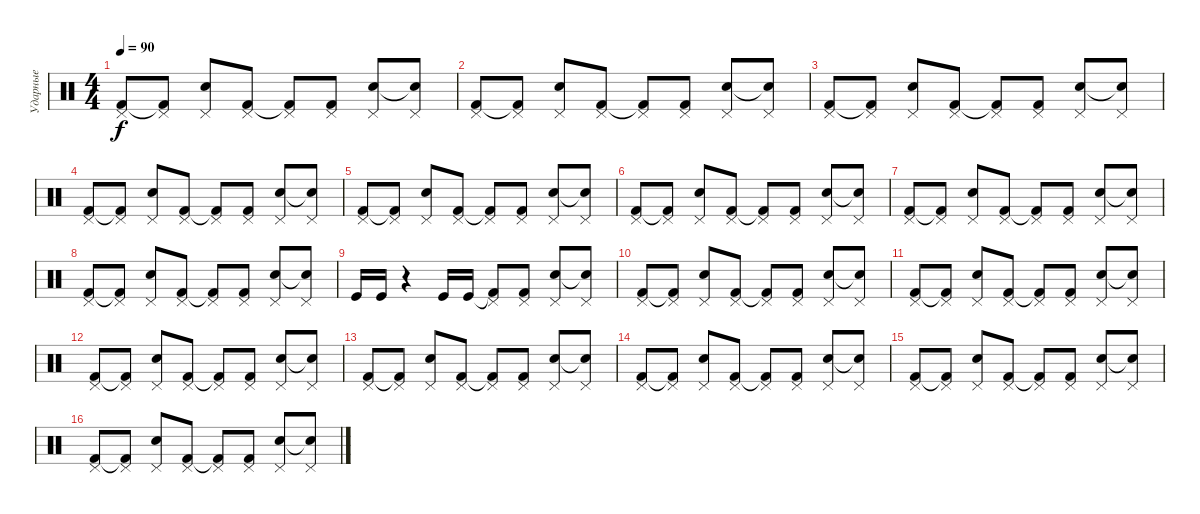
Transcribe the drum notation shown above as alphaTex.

\track ("Ударные" "Ударные") {instrument percussion}
\staff {score}
\articulation defaults
\ts (4 4)
\tempo 90
\clef neutral
\ks c
("Kick (hit) 2" "Pedal Hi-Hat (hit)").8{dy f} ("Kick (hit) 2"{t} "Pedal Hi-Hat (hit)").8 ("Snare (hit) 2" "Pedal Hi-Hat (hit)").8 ("Kick (hit) 2" "Pedal Hi-Hat (hit)").8 ("Kick (hit) 2"{t} "Pedal Hi-Hat (hit)").8 ("Kick (hit) 2" "Pedal Hi-Hat (hit)").8 ("Snare (hit) 2" "Pedal Hi-Hat (hit)").8 ("Snare (hit) 2"{t} "Pedal Hi-Hat (hit)").8 |
("Kick (hit) 2" "Pedal Hi-Hat (hit)").8 ("Kick (hit) 2"{t} "Pedal Hi-Hat (hit)").8 ("Snare (hit) 2" "Pedal Hi-Hat (hit)").8 ("Kick (hit) 2" "Pedal Hi-Hat (hit)").8 ("Kick (hit) 2"{t} "Pedal Hi-Hat (hit)").8 ("Kick (hit) 2" "Pedal Hi-Hat (hit)").8 ("Snare (hit) 2" "Pedal Hi-Hat (hit)").8 ("Snare (hit) 2"{t} "Pedal Hi-Hat (hit)").8 |
("Kick (hit) 2" "Pedal Hi-Hat (hit)").8 ("Kick (hit) 2"{t} "Pedal Hi-Hat (hit)").8 ("Snare (hit) 2" "Pedal Hi-Hat (hit)").8 ("Kick (hit) 2" "Pedal Hi-Hat (hit)").8 ("Kick (hit) 2"{t} "Pedal Hi-Hat (hit)").8 ("Kick (hit) 2" "Pedal Hi-Hat (hit)").8 ("Snare (hit) 2" "Pedal Hi-Hat (hit)").8 ("Snare (hit) 2"{t} "Pedal Hi-Hat (hit)").8 |
("Kick (hit) 2" "Pedal Hi-Hat (hit)").8 ("Kick (hit) 2"{t} "Pedal Hi-Hat (hit)").8 ("Snare (hit) 2" "Pedal Hi-Hat (hit)").8 ("Kick (hit) 2" "Pedal Hi-Hat (hit)").8 ("Kick (hit) 2"{t} "Pedal Hi-Hat (hit)").8 ("Kick (hit) 2" "Pedal Hi-Hat (hit)").8 ("Snare (hit) 2" "Pedal Hi-Hat (hit)").8 ("Snare (hit) 2"{t} "Pedal Hi-Hat (hit)").8 |
("Kick (hit) 2" "Pedal Hi-Hat (hit)").8 ("Kick (hit) 2"{t} "Pedal Hi-Hat (hit)").8 ("Snare (hit) 2" "Pedal Hi-Hat (hit)").8 ("Kick (hit) 2" "Pedal Hi-Hat (hit)").8 ("Kick (hit) 2"{t} "Pedal Hi-Hat (hit)").8 ("Kick (hit) 2" "Pedal Hi-Hat (hit)").8 ("Snare (hit) 2" "Pedal Hi-Hat (hit)").8 ("Snare (hit) 2"{t} "Pedal Hi-Hat (hit)").8 |
("Kick (hit) 2" "Pedal Hi-Hat (hit)").8 ("Kick (hit) 2"{t} "Pedal Hi-Hat (hit)").8 ("Snare (hit) 2" "Pedal Hi-Hat (hit)").8 ("Kick (hit) 2" "Pedal Hi-Hat (hit)").8 ("Kick (hit) 2"{t} "Pedal Hi-Hat (hit)").8 ("Kick (hit) 2" "Pedal Hi-Hat (hit)").8 ("Snare (hit) 2" "Pedal Hi-Hat (hit)").8 ("Snare (hit) 2"{t} "Pedal Hi-Hat (hit)").8 |
("Kick (hit) 2" "Pedal Hi-Hat (hit)").8 ("Kick (hit) 2"{t} "Pedal Hi-Hat (hit)").8 ("Snare (hit) 2" "Pedal Hi-Hat (hit)").8 ("Kick (hit) 2" "Pedal Hi-Hat (hit)").8 ("Kick (hit) 2"{t} "Pedal Hi-Hat (hit)").8 ("Kick (hit) 2" "Pedal Hi-Hat (hit)").8 ("Snare (hit) 2" "Pedal Hi-Hat (hit)").8 ("Snare (hit) 2"{t} "Pedal Hi-Hat (hit)").8 |
("Kick (hit) 2" "Pedal Hi-Hat (hit)").8 ("Kick (hit) 2"{t} "Pedal Hi-Hat (hit)").8 ("Snare (hit) 2" "Pedal Hi-Hat (hit)").8 ("Kick (hit) 2" "Pedal Hi-Hat (hit)").8 ("Kick (hit) 2"{t} "Pedal Hi-Hat (hit)").8 ("Kick (hit) 2" "Pedal Hi-Hat (hit)").8 ("Snare (hit) 2" "Pedal Hi-Hat (hit)").8 ("Snare (hit) 2"{t} "Pedal Hi-Hat (hit)").8 |
"Kick (hit)".16 "Kick (hit)".16 r.4 "Kick (hit)".16 "Kick (hit)".16 ("Kick (hit) 2"{t} "Pedal Hi-Hat (hit)").8 ("Kick (hit) 2" "Pedal Hi-Hat (hit)").8 ("Snare (hit) 2" "Pedal Hi-Hat (hit)").8 ("Snare (hit) 2"{t} "Pedal Hi-Hat (hit)").8 |
("Kick (hit) 2" "Pedal Hi-Hat (hit)").8 ("Kick (hit) 2"{t} "Pedal Hi-Hat (hit)").8 ("Snare (hit) 2" "Pedal Hi-Hat (hit)").8 ("Kick (hit) 2" "Pedal Hi-Hat (hit)").8 ("Kick (hit) 2"{t} "Pedal Hi-Hat (hit)").8 ("Kick (hit) 2" "Pedal Hi-Hat (hit)").8 ("Snare (hit) 2" "Pedal Hi-Hat (hit)").8 ("Snare (hit) 2"{t} "Pedal Hi-Hat (hit)").8 |
("Kick (hit) 2" "Pedal Hi-Hat (hit)").8 ("Kick (hit) 2"{t} "Pedal Hi-Hat (hit)").8 ("Snare (hit) 2" "Pedal Hi-Hat (hit)").8 ("Kick (hit) 2" "Pedal Hi-Hat (hit)").8 ("Kick (hit) 2"{t} "Pedal Hi-Hat (hit)").8 ("Kick (hit) 2" "Pedal Hi-Hat (hit)").8 ("Snare (hit) 2" "Pedal Hi-Hat (hit)").8 ("Snare (hit) 2"{t} "Pedal Hi-Hat (hit)").8 |
("Kick (hit) 2" "Pedal Hi-Hat (hit)").8 ("Kick (hit) 2"{t} "Pedal Hi-Hat (hit)").8 ("Snare (hit) 2" "Pedal Hi-Hat (hit)").8 ("Kick (hit) 2" "Pedal Hi-Hat (hit)").8 ("Kick (hit) 2"{t} "Pedal Hi-Hat (hit)").8 ("Kick (hit) 2" "Pedal Hi-Hat (hit)").8 ("Snare (hit) 2" "Pedal Hi-Hat (hit)").8 ("Snare (hit) 2"{t} "Pedal Hi-Hat (hit)").8 |
("Kick (hit) 2" "Pedal Hi-Hat (hit)").8 ("Kick (hit) 2"{t} "Pedal Hi-Hat (hit)").8 ("Snare (hit) 2" "Pedal Hi-Hat (hit)").8 ("Kick (hit) 2" "Pedal Hi-Hat (hit)").8 ("Kick (hit) 2"{t} "Pedal Hi-Hat (hit)").8 ("Kick (hit) 2" "Pedal Hi-Hat (hit)").8 ("Snare (hit) 2" "Pedal Hi-Hat (hit)").8 ("Snare (hit) 2"{t} "Pedal Hi-Hat (hit)").8 |
("Kick (hit) 2" "Pedal Hi-Hat (hit)").8 ("Kick (hit) 2"{t} "Pedal Hi-Hat (hit)").8 ("Snare (hit) 2" "Pedal Hi-Hat (hit)").8 ("Kick (hit) 2" "Pedal Hi-Hat (hit)").8 ("Kick (hit) 2"{t} "Pedal Hi-Hat (hit)").8 ("Kick (hit) 2" "Pedal Hi-Hat (hit)").8 ("Snare (hit) 2" "Pedal Hi-Hat (hit)").8 ("Snare (hit) 2"{t} "Pedal Hi-Hat (hit)").8 |
("Kick (hit) 2" "Pedal Hi-Hat (hit)").8 ("Kick (hit) 2"{t} "Pedal Hi-Hat (hit)").8 ("Snare (hit) 2" "Pedal Hi-Hat (hit)").8 ("Kick (hit) 2" "Pedal Hi-Hat (hit)").8 ("Kick (hit) 2"{t} "Pedal Hi-Hat (hit)").8 ("Kick (hit) 2" "Pedal Hi-Hat (hit)").8 ("Snare (hit) 2" "Pedal Hi-Hat (hit)").8 ("Snare (hit) 2"{t} "Pedal Hi-Hat (hit)").8 |
("Kick (hit) 2" "Pedal Hi-Hat (hit)").8 ("Kick (hit) 2"{t} "Pedal Hi-Hat (hit)").8 ("Snare (hit) 2" "Pedal Hi-Hat (hit)").8 ("Kick (hit) 2" "Pedal Hi-Hat (hit)").8 ("Kick (hit) 2"{t} "Pedal Hi-Hat (hit)").8 ("Kick (hit) 2" "Pedal Hi-Hat (hit)").8 ("Snare (hit) 2" "Pedal Hi-Hat (hit)").8 ("Snare (hit) 2"{t} "Pedal Hi-Hat (hit)").8
